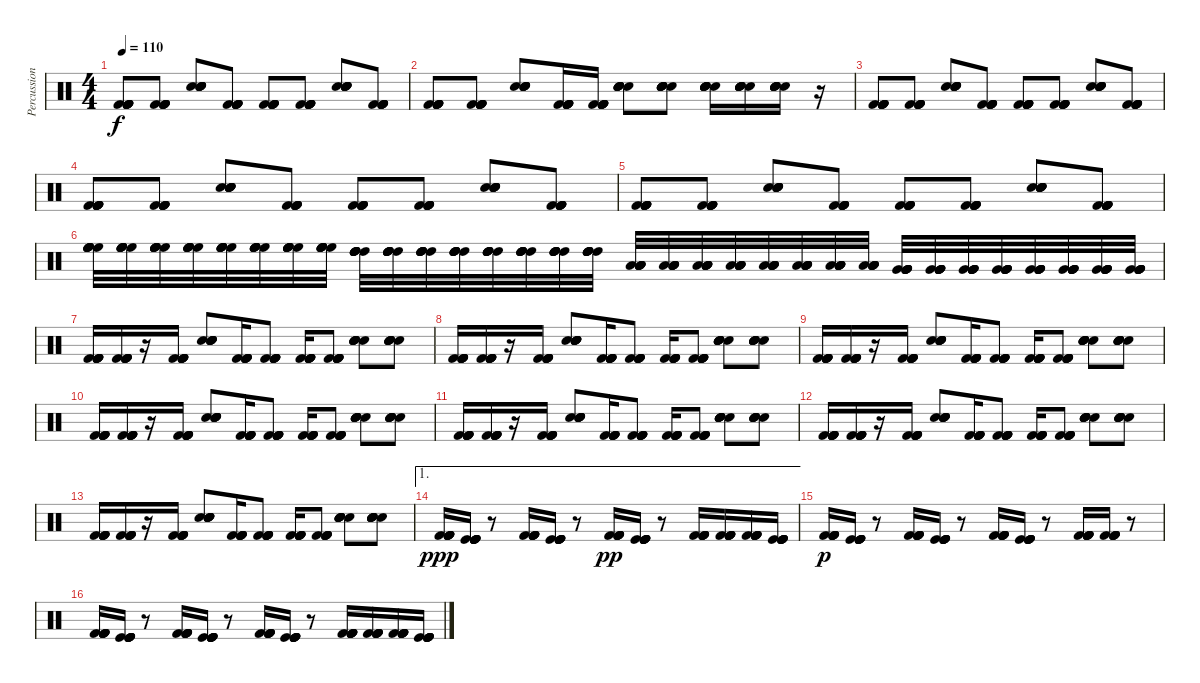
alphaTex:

\track ("Percussion 1" "Percussion") {instrument percussion}
\staff {score}
\articulation defaults
\ts (4 4)
\tempo 110
\clef neutral
\ks c
("Kick (hit) 2" "Kick (hit) 2" "Kick (hit) 2" "Kick (hit) 2" "Kick (hit) 2" "Kick (hit) 2").8{dy f} ("Kick (hit) 2" "Kick (hit) 2" "Kick (hit) 2" "Kick (hit) 2" "Kick (hit) 2" "Kick (hit) 2").8 ("Electric Snare (hit)" "Electric Snare (hit)" "Electric Snare (hit)" "Electric Snare (hit)" "Electric Snare (hit)" "Electric Snare (hit)").8 ("Kick (hit) 2" "Kick (hit) 2" "Kick (hit) 2" "Kick (hit) 2" "Kick (hit) 2" "Kick (hit) 2").8 ("Kick (hit) 2" "Kick (hit) 2" "Kick (hit) 2" "Kick (hit) 2" "Kick (hit) 2" "Kick (hit) 2").8 ("Kick (hit) 2" "Kick (hit) 2" "Kick (hit) 2" "Kick (hit) 2" "Kick (hit) 2" "Kick (hit) 2").8 ("Electric Snare (hit)" "Electric Snare (hit)" "Electric Snare (hit)" "Electric Snare (hit)" "Electric Snare (hit)" "Electric Snare (hit)").8 ("Kick (hit) 2" "Kick (hit) 2" "Kick (hit) 2" "Kick (hit) 2" "Kick (hit) 2" "Kick (hit) 2").8 |
("Kick (hit) 2" "Kick (hit) 2" "Kick (hit) 2" "Kick (hit) 2" "Kick (hit) 2" "Kick (hit) 2").8 ("Kick (hit) 2" "Kick (hit) 2" "Kick (hit) 2" "Kick (hit) 2" "Kick (hit) 2" "Kick (hit) 2").8 ("Electric Snare (hit)" "Electric Snare (hit)" "Electric Snare (hit)" "Electric Snare (hit)" "Electric Snare (hit)" "Electric Snare (hit)").8 ("Kick (hit) 2" "Kick (hit) 2" "Kick (hit) 2" "Kick (hit) 2" "Kick (hit) 2" "Kick (hit) 2").16 ("Kick (hit) 2" "Kick (hit) 2" "Kick (hit) 2" "Kick (hit) 2" "Kick (hit) 2" "Kick (hit) 2").16 ("Electric Snare (hit)" "Electric Snare (hit)" "Electric Snare (hit)" "Electric Snare (hit)" "Electric Snare (hit)" "Electric Snare (hit)").8 ("Electric Snare (hit)" "Electric Snare (hit)" "Electric Snare (hit)" "Electric Snare (hit)" "Electric Snare (hit)" "Electric Snare (hit)").8 ("Electric Snare (hit)" "Electric Snare (hit)" "Electric Snare (hit)" "Electric Snare (hit)" "Electric Snare (hit)" "Electric Snare (hit)").16 ("Electric Snare (hit)" "Electric Snare (hit)" "Electric Snare (hit)" "Electric Snare (hit)" "Electric Snare (hit)" "Electric Snare (hit)").16 ("Electric Snare (hit)" "Electric Snare (hit)" "Electric Snare (hit)" "Electric Snare (hit)" "Electric Snare (hit)" "Electric Snare (hit)").16 r.16 |
("Kick (hit) 2" "Kick (hit) 2" "Kick (hit) 2" "Kick (hit) 2" "Kick (hit) 2" "Kick (hit) 2").8 ("Kick (hit) 2" "Kick (hit) 2" "Kick (hit) 2" "Kick (hit) 2" "Kick (hit) 2" "Kick (hit) 2").8 ("Electric Snare (hit)" "Electric Snare (hit)" "Electric Snare (hit)" "Electric Snare (hit)" "Electric Snare (hit)" "Electric Snare (hit)").8 ("Kick (hit) 2" "Kick (hit) 2" "Kick (hit) 2" "Kick (hit) 2" "Kick (hit) 2" "Kick (hit) 2").8 ("Kick (hit) 2" "Kick (hit) 2" "Kick (hit) 2" "Kick (hit) 2" "Kick (hit) 2" "Kick (hit) 2").8 ("Kick (hit) 2" "Kick (hit) 2" "Kick (hit) 2" "Kick (hit) 2" "Kick (hit) 2" "Kick (hit) 2").8 ("Electric Snare (hit)" "Electric Snare (hit)" "Electric Snare (hit)" "Electric Snare (hit)" "Electric Snare (hit)" "Electric Snare (hit)").8 ("Kick (hit) 2" "Kick (hit) 2" "Kick (hit) 2" "Kick (hit) 2" "Kick (hit) 2" "Kick (hit) 2").8 |
("Kick (hit) 2" "Kick (hit) 2" "Kick (hit) 2" "Kick (hit) 2" "Kick (hit) 2" "Kick (hit) 2").8 ("Kick (hit) 2" "Kick (hit) 2" "Kick (hit) 2" "Kick (hit) 2" "Kick (hit) 2" "Kick (hit) 2").8 ("Electric Snare (hit)" "Electric Snare (hit)" "Electric Snare (hit)" "Electric Snare (hit)" "Electric Snare (hit)" "Electric Snare (hit)").8 ("Kick (hit) 2" "Kick (hit) 2" "Kick (hit) 2" "Kick (hit) 2" "Kick (hit) 2" "Kick (hit) 2").8 ("Kick (hit) 2" "Kick (hit) 2" "Kick (hit) 2" "Kick (hit) 2" "Kick (hit) 2" "Kick (hit) 2").8 ("Kick (hit) 2" "Kick (hit) 2" "Kick (hit) 2" "Kick (hit) 2" "Kick (hit) 2" "Kick (hit) 2").8 ("Electric Snare (hit)" "Electric Snare (hit)" "Electric Snare (hit)" "Electric Snare (hit)" "Electric Snare (hit)" "Electric Snare (hit)").8 ("Kick (hit) 2" "Kick (hit) 2" "Kick (hit) 2" "Kick (hit) 2" "Kick (hit) 2" "Kick (hit) 2").8 |
("Kick (hit) 2" "Kick (hit) 2" "Kick (hit) 2" "Kick (hit) 2" "Kick (hit) 2" "Kick (hit) 2").8 ("Kick (hit) 2" "Kick (hit) 2" "Kick (hit) 2" "Kick (hit) 2" "Kick (hit) 2" "Kick (hit) 2").8 ("Electric Snare (hit)" "Electric Snare (hit)" "Electric Snare (hit)" "Electric Snare (hit)" "Electric Snare (hit)" "Electric Snare (hit)").8 ("Kick (hit) 2" "Kick (hit) 2" "Kick (hit) 2" "Kick (hit) 2" "Kick (hit) 2" "Kick (hit) 2").8 ("Kick (hit) 2" "Kick (hit) 2" "Kick (hit) 2" "Kick (hit) 2" "Kick (hit) 2" "Kick (hit) 2").8 ("Kick (hit) 2" "Kick (hit) 2" "Kick (hit) 2" "Kick (hit) 2" "Kick (hit) 2" "Kick (hit) 2").8 ("Electric Snare (hit)" "Electric Snare (hit)" "Electric Snare (hit)" "Electric Snare (hit)" "Electric Snare (hit)" "Electric Snare (hit)").8 ("Kick (hit) 2" "Kick (hit) 2" "Kick (hit) 2" "Kick (hit) 2" "Kick (hit) 2" "Kick (hit) 2").8 |
("High Floor Tom (hit)" "High Floor Tom (hit)" "High Floor Tom (hit)" "High Floor Tom (hit)" "High Floor Tom (hit)" "High Floor Tom (hit)").32 ("High Floor Tom (hit)" "High Floor Tom (hit)" "High Floor Tom (hit)" "High Floor Tom (hit)" "High Floor Tom (hit)" "High Floor Tom (hit)").32 ("High Floor Tom (hit)" "High Floor Tom (hit)" "High Floor Tom (hit)" "High Floor Tom (hit)" "High Floor Tom (hit)" "High Floor Tom (hit)").32 ("High Floor Tom (hit)" "High Floor Tom (hit)" "High Floor Tom (hit)" "High Floor Tom (hit)" "High Floor Tom (hit)" "High Floor Tom (hit)").32 ("High Floor Tom (hit)" "High Floor Tom (hit)" "High Floor Tom (hit)" "High Floor Tom (hit)" "High Floor Tom (hit)" "High Floor Tom (hit)").32 ("High Floor Tom (hit)" "High Floor Tom (hit)" "High Floor Tom (hit)" "High Floor Tom (hit)" "High Floor Tom (hit)" "High Floor Tom (hit)").32 ("High Floor Tom (hit)" "High Floor Tom (hit)" "High Floor Tom (hit)" "High Floor Tom (hit)" "High Floor Tom (hit)" "High Floor Tom (hit)").32 ("High Floor Tom (hit)" "High Floor Tom (hit)" "High Floor Tom (hit)" "High Floor Tom (hit)" "High Floor Tom (hit)" "High Floor Tom (hit)").32 ("High Tom (hit)" "High Tom (hit)" "High Tom (hit)" "High Tom (hit)" "High Tom (hit)" "High Tom (hit)").32 ("High Tom (hit)" "High Tom (hit)" "High Tom (hit)" "High Tom (hit)" "High Tom (hit)" "High Tom (hit)").32 ("High Tom (hit)" "High Tom (hit)" "High Tom (hit)" "High Tom (hit)" "High Tom (hit)" "High Tom (hit)").32 ("High Tom (hit)" "High Tom (hit)" "High Tom (hit)" "High Tom (hit)" "High Tom (hit)" "High Tom (hit)").32 ("High Tom (hit)" "High Tom (hit)" "High Tom (hit)" "High Tom (hit)" "High Tom (hit)" "High Tom (hit)").32 ("High Tom (hit)" "High Tom (hit)" "High Tom (hit)" "High Tom (hit)" "High Tom (hit)" "High Tom (hit)").32 ("High Tom (hit)" "High Tom (hit)" "High Tom (hit)" "High Tom (hit)" "High Tom (hit)" "High Tom (hit)").32 ("High Tom (hit)" "High Tom (hit)" "High Tom (hit)" "High Tom (hit)" "High Tom (hit)" "High Tom (hit)").32 ("Low Tom (hit)" "Low Tom (hit)" "Low Tom (hit)" "Low Tom (hit)" "Low Tom (hit)" "Low Tom (hit)").32 ("Low Tom (hit)" "Low Tom (hit)" "Low Tom (hit)" "Low Tom (hit)" "Low Tom (hit)" "Low Tom (hit)").32 ("Low Tom (hit)" "Low Tom (hit)" "Low Tom (hit)" "Low Tom (hit)" "Low Tom (hit)" "Low Tom (hit)").32 ("Low Tom (hit)" "Low Tom (hit)" "Low Tom (hit)" "Low Tom (hit)" "Low Tom (hit)" "Low Tom (hit)").32 ("Low Tom (hit)" "Low Tom (hit)" "Low Tom (hit)" "Low Tom (hit)" "Low Tom (hit)" "Low Tom (hit)").32 ("Low Tom (hit)" "Low Tom (hit)" "Low Tom (hit)" "Low Tom (hit)" "Low Tom (hit)" "Low Tom (hit)").32 ("Low Tom (hit)" "Low Tom (hit)" "Low Tom (hit)" "Low Tom (hit)" "Low Tom (hit)" "Low Tom (hit)").32 ("Low Tom (hit)" "Low Tom (hit)" "Low Tom (hit)" "Low Tom (hit)" "Low Tom (hit)" "Low Tom (hit)").32 ("Very Low Tom (hit)" "Very Low Tom (hit)" "Very Low Tom (hit)" "Very Low Tom (hit)" "Very Low Tom (hit)" "Very Low Tom (hit)").32 ("Very Low Tom (hit)" "Very Low Tom (hit)" "Very Low Tom (hit)" "Very Low Tom (hit)" "Very Low Tom (hit)" "Very Low Tom (hit)").32 ("Very Low Tom (hit)" "Very Low Tom (hit)" "Very Low Tom (hit)" "Very Low Tom (hit)" "Very Low Tom (hit)" "Very Low Tom (hit)").32 ("Very Low Tom (hit)" "Very Low Tom (hit)" "Very Low Tom (hit)" "Very Low Tom (hit)" "Very Low Tom (hit)" "Very Low Tom (hit)").32 ("Very Low Tom (hit)" "Very Low Tom (hit)" "Very Low Tom (hit)" "Very Low Tom (hit)" "Very Low Tom (hit)" "Very Low Tom (hit)").32 ("Very Low Tom (hit)" "Very Low Tom (hit)" "Very Low Tom (hit)" "Very Low Tom (hit)" "Very Low Tom (hit)" "Very Low Tom (hit)").32 ("Very Low Tom (hit)" "Very Low Tom (hit)" "Very Low Tom (hit)" "Very Low Tom (hit)" "Very Low Tom (hit)" "Very Low Tom (hit)").32 ("Very Low Tom (hit)" "Very Low Tom (hit)" "Very Low Tom (hit)" "Very Low Tom (hit)" "Very Low Tom (hit)" "Very Low Tom (hit)").32 |
("Kick (hit) 2" "Kick (hit) 2" "Kick (hit) 2" "Kick (hit) 2" "Kick (hit) 2" "Kick (hit) 2").16 ("Kick (hit) 2" "Kick (hit) 2" "Kick (hit) 2" "Kick (hit) 2" "Kick (hit) 2" "Kick (hit) 2").16 r.16 ("Kick (hit) 2" "Kick (hit) 2" "Kick (hit) 2" "Kick (hit) 2" "Kick (hit) 2" "Kick (hit) 2").16 ("Electric Snare (hit)" "Electric Snare (hit)" "Electric Snare (hit)" "Electric Snare (hit)" "Electric Snare (hit)" "Electric Snare (hit)").8 ("Kick (hit) 2" "Kick (hit) 2" "Kick (hit) 2" "Kick (hit) 2" "Kick (hit) 2" "Kick (hit) 2").16 ("Kick (hit) 2" "Kick (hit) 2" "Kick (hit) 2" "Kick (hit) 2" "Kick (hit) 2" "Kick (hit) 2").8 ("Kick (hit) 2" "Kick (hit) 2" "Kick (hit) 2" "Kick (hit) 2" "Kick (hit) 2" "Kick (hit) 2").16 ("Kick (hit) 2" "Kick (hit) 2" "Kick (hit) 2" "Kick (hit) 2" "Kick (hit) 2" "Kick (hit) 2").8 ("Electric Snare (hit)" "Electric Snare (hit)" "Electric Snare (hit)" "Electric Snare (hit)" "Electric Snare (hit)" "Electric Snare (hit)").8 ("Electric Snare (hit)" "Electric Snare (hit)" "Electric Snare (hit)" "Electric Snare (hit)" "Electric Snare (hit)" "Electric Snare (hit)").8 |
("Kick (hit) 2" "Kick (hit) 2" "Kick (hit) 2" "Kick (hit) 2" "Kick (hit) 2" "Kick (hit) 2").16 ("Kick (hit) 2" "Kick (hit) 2" "Kick (hit) 2" "Kick (hit) 2" "Kick (hit) 2" "Kick (hit) 2").16 r.16 ("Kick (hit) 2" "Kick (hit) 2" "Kick (hit) 2" "Kick (hit) 2" "Kick (hit) 2" "Kick (hit) 2").16 ("Electric Snare (hit)" "Electric Snare (hit)" "Electric Snare (hit)" "Electric Snare (hit)" "Electric Snare (hit)" "Electric Snare (hit)").8 ("Kick (hit) 2" "Kick (hit) 2" "Kick (hit) 2" "Kick (hit) 2" "Kick (hit) 2" "Kick (hit) 2").16 ("Kick (hit) 2" "Kick (hit) 2" "Kick (hit) 2" "Kick (hit) 2" "Kick (hit) 2" "Kick (hit) 2").8 ("Kick (hit) 2" "Kick (hit) 2" "Kick (hit) 2" "Kick (hit) 2" "Kick (hit) 2" "Kick (hit) 2").16 ("Kick (hit) 2" "Kick (hit) 2" "Kick (hit) 2" "Kick (hit) 2" "Kick (hit) 2" "Kick (hit) 2").8 ("Electric Snare (hit)" "Electric Snare (hit)" "Electric Snare (hit)" "Electric Snare (hit)" "Electric Snare (hit)" "Electric Snare (hit)").8 ("Electric Snare (hit)" "Electric Snare (hit)" "Electric Snare (hit)" "Electric Snare (hit)" "Electric Snare (hit)" "Electric Snare (hit)").8 |
("Kick (hit) 2" "Kick (hit) 2" "Kick (hit) 2" "Kick (hit) 2" "Kick (hit) 2" "Kick (hit) 2").16 ("Kick (hit) 2" "Kick (hit) 2" "Kick (hit) 2" "Kick (hit) 2" "Kick (hit) 2" "Kick (hit) 2").16 r.16 ("Kick (hit) 2" "Kick (hit) 2" "Kick (hit) 2" "Kick (hit) 2" "Kick (hit) 2" "Kick (hit) 2").16 ("Electric Snare (hit)" "Electric Snare (hit)" "Electric Snare (hit)" "Electric Snare (hit)" "Electric Snare (hit)" "Electric Snare (hit)").8 ("Kick (hit) 2" "Kick (hit) 2" "Kick (hit) 2" "Kick (hit) 2" "Kick (hit) 2" "Kick (hit) 2").16 ("Kick (hit) 2" "Kick (hit) 2" "Kick (hit) 2" "Kick (hit) 2" "Kick (hit) 2" "Kick (hit) 2").8 ("Kick (hit) 2" "Kick (hit) 2" "Kick (hit) 2" "Kick (hit) 2" "Kick (hit) 2" "Kick (hit) 2").16 ("Kick (hit) 2" "Kick (hit) 2" "Kick (hit) 2" "Kick (hit) 2" "Kick (hit) 2" "Kick (hit) 2").8 ("Electric Snare (hit)" "Electric Snare (hit)" "Electric Snare (hit)" "Electric Snare (hit)" "Electric Snare (hit)" "Electric Snare (hit)").8 ("Electric Snare (hit)" "Electric Snare (hit)" "Electric Snare (hit)" "Electric Snare (hit)" "Electric Snare (hit)" "Electric Snare (hit)").8 |
("Kick (hit) 2" "Kick (hit) 2" "Kick (hit) 2" "Kick (hit) 2" "Kick (hit) 2" "Kick (hit) 2").16 ("Kick (hit) 2" "Kick (hit) 2" "Kick (hit) 2" "Kick (hit) 2" "Kick (hit) 2" "Kick (hit) 2").16 r.16 ("Kick (hit) 2" "Kick (hit) 2" "Kick (hit) 2" "Kick (hit) 2" "Kick (hit) 2" "Kick (hit) 2").16 ("Electric Snare (hit)" "Electric Snare (hit)" "Electric Snare (hit)" "Electric Snare (hit)" "Electric Snare (hit)" "Electric Snare (hit)").8 ("Kick (hit) 2" "Kick (hit) 2" "Kick (hit) 2" "Kick (hit) 2" "Kick (hit) 2" "Kick (hit) 2").16 ("Kick (hit) 2" "Kick (hit) 2" "Kick (hit) 2" "Kick (hit) 2" "Kick (hit) 2" "Kick (hit) 2").8 ("Kick (hit) 2" "Kick (hit) 2" "Kick (hit) 2" "Kick (hit) 2" "Kick (hit) 2" "Kick (hit) 2").16 ("Kick (hit) 2" "Kick (hit) 2" "Kick (hit) 2" "Kick (hit) 2" "Kick (hit) 2" "Kick (hit) 2").8 ("Electric Snare (hit)" "Electric Snare (hit)" "Electric Snare (hit)" "Electric Snare (hit)" "Electric Snare (hit)" "Electric Snare (hit)").8 ("Electric Snare (hit)" "Electric Snare (hit)" "Electric Snare (hit)" "Electric Snare (hit)" "Electric Snare (hit)" "Electric Snare (hit)").8 |
("Kick (hit) 2" "Kick (hit) 2" "Kick (hit) 2" "Kick (hit) 2" "Kick (hit) 2" "Kick (hit) 2").16 ("Kick (hit) 2" "Kick (hit) 2" "Kick (hit) 2" "Kick (hit) 2" "Kick (hit) 2" "Kick (hit) 2").16 r.16 ("Kick (hit) 2" "Kick (hit) 2" "Kick (hit) 2" "Kick (hit) 2" "Kick (hit) 2" "Kick (hit) 2").16 ("Electric Snare (hit)" "Electric Snare (hit)" "Electric Snare (hit)" "Electric Snare (hit)" "Electric Snare (hit)" "Electric Snare (hit)").8 ("Kick (hit) 2" "Kick (hit) 2" "Kick (hit) 2" "Kick (hit) 2" "Kick (hit) 2" "Kick (hit) 2").16 ("Kick (hit) 2" "Kick (hit) 2" "Kick (hit) 2" "Kick (hit) 2" "Kick (hit) 2" "Kick (hit) 2").8 ("Kick (hit) 2" "Kick (hit) 2" "Kick (hit) 2" "Kick (hit) 2" "Kick (hit) 2" "Kick (hit) 2").16 ("Kick (hit) 2" "Kick (hit) 2" "Kick (hit) 2" "Kick (hit) 2" "Kick (hit) 2" "Kick (hit) 2").8 ("Electric Snare (hit)" "Electric Snare (hit)" "Electric Snare (hit)" "Electric Snare (hit)" "Electric Snare (hit)" "Electric Snare (hit)").8 ("Electric Snare (hit)" "Electric Snare (hit)" "Electric Snare (hit)" "Electric Snare (hit)" "Electric Snare (hit)" "Electric Snare (hit)").8 |
("Kick (hit) 2" "Kick (hit) 2" "Kick (hit) 2" "Kick (hit) 2" "Kick (hit) 2" "Kick (hit) 2").16 ("Kick (hit) 2" "Kick (hit) 2" "Kick (hit) 2" "Kick (hit) 2" "Kick (hit) 2" "Kick (hit) 2").16 r.16 ("Kick (hit) 2" "Kick (hit) 2" "Kick (hit) 2" "Kick (hit) 2" "Kick (hit) 2" "Kick (hit) 2").16 ("Electric Snare (hit)" "Electric Snare (hit)" "Electric Snare (hit)" "Electric Snare (hit)" "Electric Snare (hit)" "Electric Snare (hit)").8 ("Kick (hit) 2" "Kick (hit) 2" "Kick (hit) 2" "Kick (hit) 2" "Kick (hit) 2" "Kick (hit) 2").16 ("Kick (hit) 2" "Kick (hit) 2" "Kick (hit) 2" "Kick (hit) 2" "Kick (hit) 2" "Kick (hit) 2").8 ("Kick (hit) 2" "Kick (hit) 2" "Kick (hit) 2" "Kick (hit) 2" "Kick (hit) 2" "Kick (hit) 2").16 ("Kick (hit) 2" "Kick (hit) 2" "Kick (hit) 2" "Kick (hit) 2" "Kick (hit) 2" "Kick (hit) 2").8 ("Electric Snare (hit)" "Electric Snare (hit)" "Electric Snare (hit)" "Electric Snare (hit)" "Electric Snare (hit)" "Electric Snare (hit)").8 ("Electric Snare (hit)" "Electric Snare (hit)" "Electric Snare (hit)" "Electric Snare (hit)" "Electric Snare (hit)" "Electric Snare (hit)").8 |
("Kick (hit) 2" "Kick (hit) 2" "Kick (hit) 2" "Kick (hit) 2" "Kick (hit) 2" "Kick (hit) 2").16 ("Kick (hit) 2" "Kick (hit) 2" "Kick (hit) 2" "Kick (hit) 2" "Kick (hit) 2" "Kick (hit) 2").16 r.16 ("Kick (hit) 2" "Kick (hit) 2" "Kick (hit) 2" "Kick (hit) 2" "Kick (hit) 2" "Kick (hit) 2").16 ("Electric Snare (hit)" "Electric Snare (hit)" "Electric Snare (hit)" "Electric Snare (hit)" "Electric Snare (hit)" "Electric Snare (hit)").8 ("Kick (hit) 2" "Kick (hit) 2" "Kick (hit) 2" "Kick (hit) 2" "Kick (hit) 2" "Kick (hit) 2").16 ("Kick (hit) 2" "Kick (hit) 2" "Kick (hit) 2" "Kick (hit) 2" "Kick (hit) 2" "Kick (hit) 2").8 ("Kick (hit) 2" "Kick (hit) 2" "Kick (hit) 2" "Kick (hit) 2" "Kick (hit) 2" "Kick (hit) 2").16 ("Kick (hit) 2" "Kick (hit) 2" "Kick (hit) 2" "Kick (hit) 2" "Kick (hit) 2" "Kick (hit) 2").8 ("Electric Snare (hit)" "Electric Snare (hit)" "Electric Snare (hit)" "Electric Snare (hit)" "Electric Snare (hit)" "Electric Snare (hit)").8 ("Electric Snare (hit)" "Electric Snare (hit)" "Electric Snare (hit)" "Electric Snare (hit)" "Electric Snare (hit)" "Electric Snare (hit)").8 |
\ae 1
("Kick (hit) 2" "Kick (hit) 2" "Kick (hit) 2" "Kick (hit) 2" "Kick (hit) 2" "Kick (hit) 2").16{dy ppp} ("Kick (hit)" "Kick (hit)" "Kick (hit)" "Kick (hit)" "Kick (hit)" "Kick (hit)").16 r.8 ("Kick (hit) 2" "Kick (hit) 2" "Kick (hit) 2" "Kick (hit) 2" "Kick (hit) 2" "Kick (hit) 2").16 ("Kick (hit)" "Kick (hit)" "Kick (hit)" "Kick (hit)" "Kick (hit)" "Kick (hit)").16 r.8 ("Kick (hit) 2" "Kick (hit) 2" "Kick (hit) 2" "Kick (hit) 2" "Kick (hit) 2" "Kick (hit) 2").16{dy pp} ("Kick (hit)" "Kick (hit)" "Kick (hit)" "Kick (hit)" "Kick (hit)" "Kick (hit)").16 r.8 ("Kick (hit) 2" "Kick (hit) 2" "Kick (hit) 2" "Kick (hit) 2" "Kick (hit) 2" "Kick (hit) 2").16 ("Kick (hit) 2" "Kick (hit) 2" "Kick (hit) 2" "Kick (hit) 2" "Kick (hit) 2" "Kick (hit) 2").16 ("Kick (hit) 2" "Kick (hit) 2" "Kick (hit) 2" "Kick (hit) 2" "Kick (hit) 2" "Kick (hit) 2").16 ("Kick (hit)" "Kick (hit)" "Kick (hit)" "Kick (hit)" "Kick (hit)" "Kick (hit)").16 |
("Kick (hit) 2" "Kick (hit) 2" "Kick (hit) 2" "Kick (hit) 2" "Kick (hit) 2" "Kick (hit) 2").16{dy p} ("Kick (hit)" "Kick (hit)" "Kick (hit)" "Kick (hit)" "Kick (hit)" "Kick (hit)").16 r.8 ("Kick (hit) 2" "Kick (hit) 2" "Kick (hit) 2" "Kick (hit) 2" "Kick (hit) 2" "Kick (hit) 2").16 ("Kick (hit)" "Kick (hit)" "Kick (hit)" "Kick (hit)" "Kick (hit)" "Kick (hit)").16 r.8 ("Kick (hit) 2" "Kick (hit) 2" "Kick (hit) 2" "Kick (hit) 2" "Kick (hit) 2" "Kick (hit) 2").16 ("Kick (hit)" "Kick (hit)" "Kick (hit)" "Kick (hit)" "Kick (hit)" "Kick (hit)").16 r.8 ("Kick (hit) 2" "Kick (hit) 2" "Kick (hit) 2" "Kick (hit) 2" "Kick (hit) 2" "Kick (hit) 2").16 ("Kick (hit) 2" "Kick (hit) 2" "Kick (hit) 2" "Kick (hit) 2" "Kick (hit) 2" "Kick (hit) 2").16 r.8 |
("Kick (hit) 2" "Kick (hit) 2" "Kick (hit) 2" "Kick (hit) 2" "Kick (hit) 2" "Kick (hit) 2").16 ("Kick (hit)" "Kick (hit)" "Kick (hit)" "Kick (hit)" "Kick (hit)" "Kick (hit)").16 r.8 ("Kick (hit) 2" "Kick (hit) 2" "Kick (hit) 2" "Kick (hit) 2" "Kick (hit) 2" "Kick (hit) 2").16 ("Kick (hit)" "Kick (hit)" "Kick (hit)" "Kick (hit)" "Kick (hit)" "Kick (hit)").16 r.8 ("Kick (hit) 2" "Kick (hit) 2" "Kick (hit) 2" "Kick (hit) 2" "Kick (hit) 2" "Kick (hit) 2").16 ("Kick (hit)" "Kick (hit)" "Kick (hit)" "Kick (hit)" "Kick (hit)" "Kick (hit)").16 r.8 ("Kick (hit) 2" "Kick (hit) 2" "Kick (hit) 2" "Kick (hit) 2" "Kick (hit) 2" "Kick (hit) 2").16 ("Kick (hit) 2" "Kick (hit) 2" "Kick (hit) 2" "Kick (hit) 2" "Kick (hit) 2" "Kick (hit) 2").16 ("Kick (hit) 2" "Kick (hit) 2" "Kick (hit) 2" "Kick (hit) 2" "Kick (hit) 2" "Kick (hit) 2").16 ("Kick (hit)" "Kick (hit)" "Kick (hit)" "Kick (hit)" "Kick (hit)" "Kick (hit)").16
